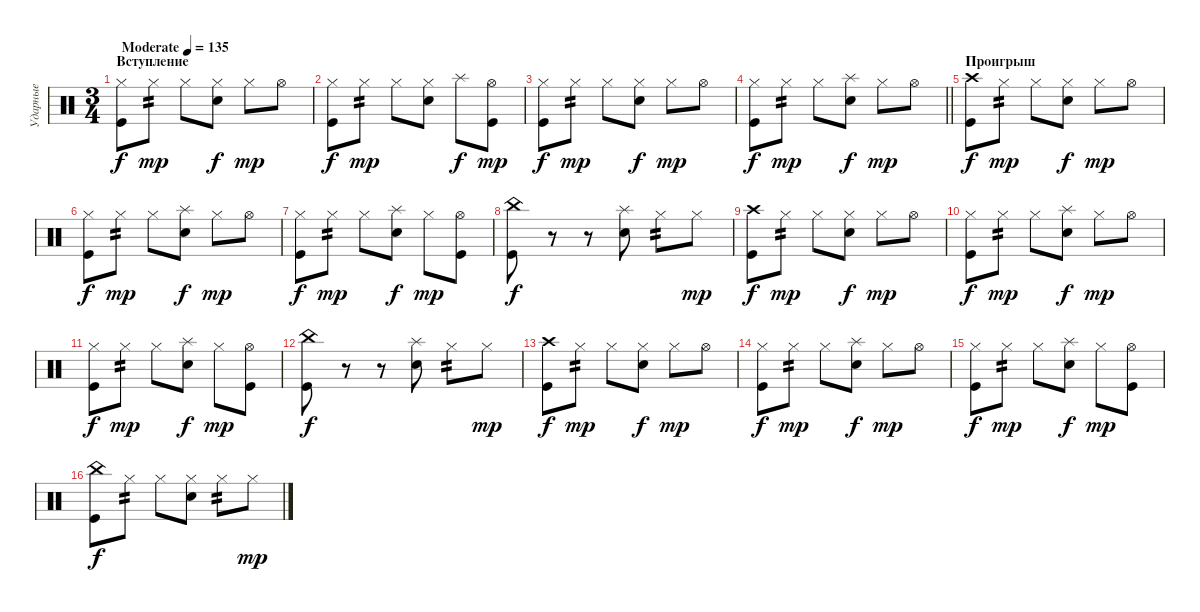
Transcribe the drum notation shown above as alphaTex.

\track ("Ударные" "Ударные") {instrument percussion}
\staff {score}
\articulation defaults
\ts (3 4)
\section ("" "Вступление")
\tempo (135 "Moderate")
\clef neutral
\ks c
("Hi-Hat (closed)" "Kick (hit)").8{dy f} "Hi-Hat (closed)".8{tp 2 dy mp} "Hi-Hat (closed)".8 ("Hi-Hat (closed)" "Snare (hit) 2").8{dy f} "Hi-Hat (closed)".8{dy mp} "Hi-Hat (open)".8 |
("Hi-Hat (closed)" "Kick (hit)").8{dy f} "Hi-Hat (closed)".8{tp 2 dy mp} "Hi-Hat (closed)".8 ("Hi-Hat (closed)" "Snare (hit) 2").8 "Splash (hit)".8{dy f} ("Hi-Hat (open)" "Kick (hit)").8{dy mp} |
("Hi-Hat (closed)" "Kick (hit)").8{dy f} "Hi-Hat (closed)".8{tp 2 dy mp} "Hi-Hat (closed)".8 ("Hi-Hat (closed)" "Snare (hit) 2").8{dy f} "Hi-Hat (closed)".8{dy mp} "Hi-Hat (open)".8 |
\barLineRight lightlight
("Hi-Hat (closed)" "Kick (hit)").8{dy f} "Hi-Hat (closed)".8{tp 2 dy mp} "Hi-Hat (closed)".8 ("Splash (hit)" "Snare (hit) 2").8{dy f} "Hi-Hat (closed)".8{dy mp} "Hi-Hat (open)".8 |
\section ("" "Проигрыш")
("Crash high (hit)" "Kick (hit)").8{dy f} "Hi-Hat (closed)".8{tp 2 dy mp} "Hi-Hat (closed)".8 ("Hi-Hat (closed)" "Snare (hit) 2").8{dy f} "Hi-Hat (closed)".8{dy mp} "Hi-Hat (open)".8 |
("Hi-Hat (closed)" "Kick (hit)").8{dy f} "Hi-Hat (closed)".8{tp 2 dy mp} "Hi-Hat (closed)".8 ("Splash (hit)" "Snare (hit) 2").8{dy f} "Hi-Hat (closed)".8{dy mp} "Hi-Hat (open)".8 |
("Hi-Hat (closed)" "Kick (hit)").8{dy f} "Hi-Hat (closed)".8{tp 2 dy mp} "Hi-Hat (closed)".8 ("Splash (hit)" "Snare (hit) 2").8{dy f} "Hi-Hat (closed)".8{dy mp} ("Hi-Hat (open)" "Kick (hit)").8 |
("China (hit)" "Kick (hit)").8{dy f} r.8 r.8 ("Splash (hit)" "Snare (hit) 2").8 "Hi-Hat (closed)".8{tp 2} "Hi-Hat (closed)".8{dy mp} |
("Crash high (hit)" "Kick (hit)").8{dy f} "Hi-Hat (closed)".8{tp 2 dy mp} "Hi-Hat (closed)".8 ("Hi-Hat (closed)" "Snare (hit) 2").8{dy f} "Hi-Hat (closed)".8{dy mp} "Hi-Hat (open)".8 |
("Hi-Hat (closed)" "Kick (hit)").8{dy f} "Hi-Hat (closed)".8{tp 2 dy mp} "Hi-Hat (closed)".8 ("Splash (hit)" "Snare (hit) 2").8{dy f} "Hi-Hat (closed)".8{dy mp} "Hi-Hat (open)".8 |
("Hi-Hat (closed)" "Kick (hit)").8{dy f} "Hi-Hat (closed)".8{tp 2 dy mp} "Hi-Hat (closed)".8 ("Splash (hit)" "Snare (hit) 2").8{dy f} "Hi-Hat (closed)".8{dy mp} ("Hi-Hat (open)" "Kick (hit)").8 |
("China (hit)" "Kick (hit)").8{dy f} r.8 r.8 ("Splash (hit)" "Snare (hit) 2").8 "Hi-Hat (closed)".8{tp 2} "Hi-Hat (closed)".8{dy mp} |
("Crash high (hit)" "Kick (hit)").8{dy f} "Hi-Hat (closed)".8{tp 2 dy mp} "Hi-Hat (closed)".8 ("Hi-Hat (closed)" "Snare (hit) 2").8{dy f} "Hi-Hat (closed)".8{dy mp} "Hi-Hat (open)".8 |
("Hi-Hat (closed)" "Kick (hit)").8{dy f} "Hi-Hat (closed)".8{tp 2 dy mp} "Hi-Hat (closed)".8 ("Splash (hit)" "Snare (hit) 2").8{dy f} "Hi-Hat (closed)".8{dy mp} "Hi-Hat (open)".8 |
("Hi-Hat (closed)" "Kick (hit)").8{dy f} "Hi-Hat (closed)".8{tp 2 dy mp} "Hi-Hat (closed)".8 ("Splash (hit)" "Snare (hit) 2").8{dy f} "Hi-Hat (closed)".8{dy mp} ("Hi-Hat (open)" "Kick (hit)").8 |
("China (hit)" "Kick (hit)").8{dy f} "Hi-Hat (closed)".8{tp 2} "Hi-Hat (closed)".8 ("Hi-Hat (closed)" "Snare (hit) 2").8 "Hi-Hat (closed)".8{tp 2} "Hi-Hat (closed)".8{dy mp}
